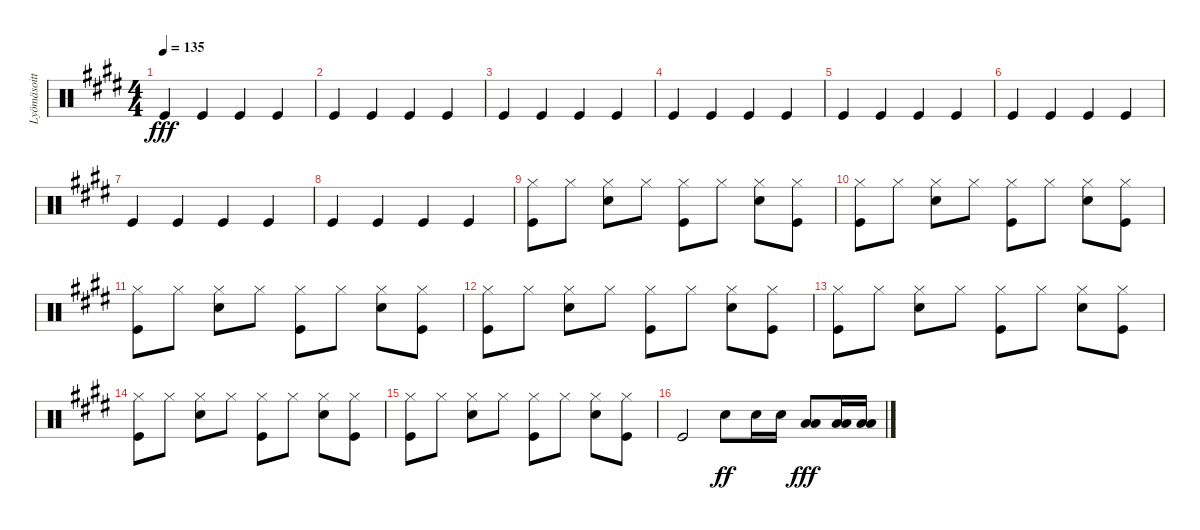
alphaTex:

\track ("Lyömäsoittimet" "Lyömäsoitt") {instrument percussion}
\staff {score}
\articulation defaults
\ts (4 4)
\tempo 135
\clef neutral
\ks e "Kick (hit)".4{dy fff} "Kick (hit)".4 "Kick (hit)".4 "Kick (hit)".4
|
"Kick (hit)".4 "Kick (hit)".4 "Kick (hit)".4 "Kick (hit)".4 |
"Kick (hit)".4 "Kick (hit)".4 "Kick (hit)".4 "Kick (hit)".4 |
"Kick (hit)".4 "Kick (hit)".4 "Kick (hit)".4 "Kick (hit)".4 |
"Kick (hit)".4 "Kick (hit)".4 "Kick (hit)".4 "Kick (hit)".4 |
"Kick (hit)".4 "Kick (hit)".4 "Kick (hit)".4 "Kick (hit)".4 |
"Kick (hit)".4 "Kick (hit)".4 "Kick (hit)".4 "Kick (hit)".4 |
"Kick (hit)".4 "Kick (hit)".4 "Kick (hit)".4 "Kick (hit)".4 |
("Hi-Hat (closed)" "Kick (hit)").8 "Hi-Hat (closed)".8 ("Hi-Hat (closed)" "Snare (hit) 2").8 "Hi-Hat (closed)".8 ("Hi-Hat (closed)" "Kick (hit)").8 "Hi-Hat (closed)".8 ("Hi-Hat (closed)" "Snare (hit) 2").8 ("Hi-Hat (closed)" "Kick (hit)").8 |
("Hi-Hat (closed)" "Kick (hit)").8 "Hi-Hat (closed)".8 ("Hi-Hat (closed)" "Snare (hit) 2").8 "Hi-Hat (closed)".8 ("Hi-Hat (closed)" "Kick (hit)").8 "Hi-Hat (closed)".8 ("Hi-Hat (closed)" "Snare (hit) 2").8 ("Hi-Hat (closed)" "Kick (hit)").8 |
("Hi-Hat (closed)" "Kick (hit)").8 "Hi-Hat (closed)".8 ("Hi-Hat (closed)" "Snare (hit) 2").8 "Hi-Hat (closed)".8 ("Hi-Hat (closed)" "Kick (hit)").8 "Hi-Hat (closed)".8 ("Hi-Hat (closed)" "Snare (hit) 2").8 ("Hi-Hat (closed)" "Kick (hit)").8 |
("Hi-Hat (closed)" "Kick (hit)").8 "Hi-Hat (closed)".8 ("Hi-Hat (closed)" "Snare (hit) 2").8 "Hi-Hat (closed)".8 ("Hi-Hat (closed)" "Kick (hit)").8 "Hi-Hat (closed)".8 ("Hi-Hat (closed)" "Snare (hit) 2").8 ("Hi-Hat (closed)" "Kick (hit)").8 |
("Hi-Hat (closed)" "Kick (hit)").8 "Hi-Hat (closed)".8 ("Hi-Hat (closed)" "Snare (hit) 2").8 "Hi-Hat (closed)".8 ("Hi-Hat (closed)" "Kick (hit)").8 "Hi-Hat (closed)".8 ("Hi-Hat (closed)" "Snare (hit) 2").8 ("Hi-Hat (closed)" "Kick (hit)").8 |
("Hi-Hat (closed)" "Kick (hit)").8 "Hi-Hat (closed)".8 ("Hi-Hat (closed)" "Snare (hit) 2").8 "Hi-Hat (closed)".8 ("Hi-Hat (closed)" "Kick (hit)").8 "Hi-Hat (closed)".8 ("Hi-Hat (closed)" "Snare (hit) 2").8 ("Hi-Hat (closed)" "Kick (hit)").8 |
("Hi-Hat (closed)" "Kick (hit)").8 "Hi-Hat (closed)".8 ("Hi-Hat (closed)" "Snare (hit) 2").8 "Hi-Hat (closed)".8 ("Hi-Hat (closed)" "Kick (hit)").8 "Hi-Hat (closed)".8 ("Hi-Hat (closed)" "Snare (hit) 2").8 ("Hi-Hat (closed)" "Kick (hit)").8 |
"Kick (hit)".2 "Snare (hit) 2".8{dy ff} "Snare (hit) 2".16 "Snare (hit) 2".16 ("Low Tom (hit)" "Low Floor Tom (hit)").8{dy fff} ("Low Tom (hit)" "Low Floor Tom (hit)").16 ("Low Tom (hit)" "Low Floor Tom (hit)").16
